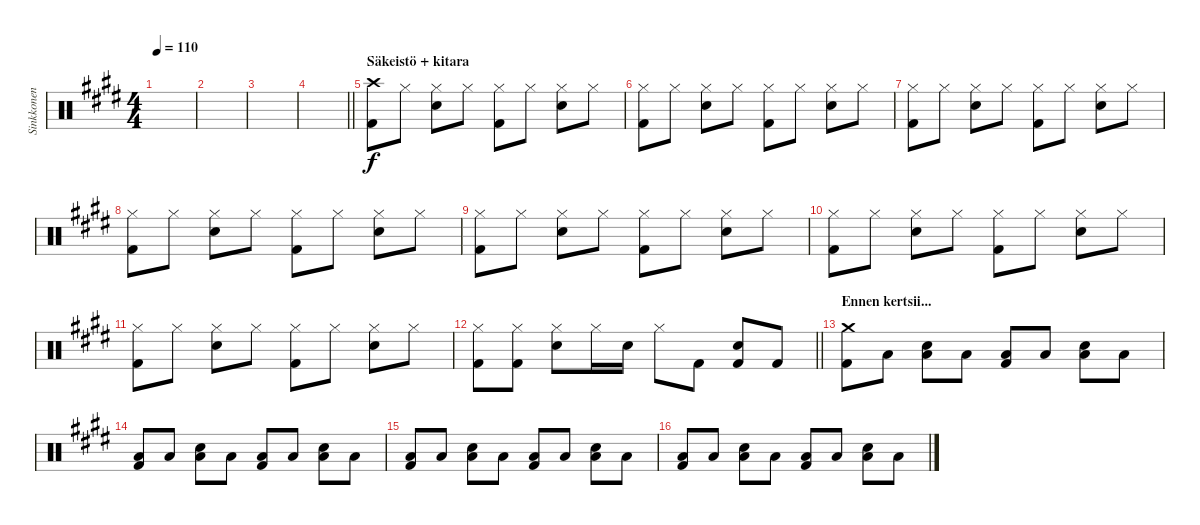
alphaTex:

\track ("Sinkkonen" "Sinkkonen") {instrument percussion}
\staff {score}
\articulation defaults
\ts (4 4)
\tempo 110
\clef neutral
\ks c#minor
|
|
|
\barLineRight lightlight
|
\section ("" "Säkeistö + kitara")
("Crash high (hit)" "Kick (hit) 2").8{volume 16} "Hi-Hat (closed)".8 ("Hi-Hat (closed)" "Snare (hit) 2").8 "Hi-Hat (closed)".8 ("Hi-Hat (closed)" "Kick (hit) 2").8 "Hi-Hat (closed)".8 ("Hi-Hat (closed)" "Snare (hit) 2").8 "Hi-Hat (closed)".8 |
("Hi-Hat (closed)" "Kick (hit) 2").8 "Hi-Hat (closed)".8 ("Hi-Hat (closed)" "Snare (hit) 2").8 "Hi-Hat (closed)".8 ("Hi-Hat (closed)" "Kick (hit) 2").8 "Hi-Hat (closed)".8 ("Hi-Hat (closed)" "Snare (hit) 2").8 "Hi-Hat (closed)".8 |
("Hi-Hat (closed)" "Kick (hit) 2").8 "Hi-Hat (closed)".8 ("Hi-Hat (closed)" "Snare (hit) 2").8 "Hi-Hat (closed)".8 ("Hi-Hat (closed)" "Kick (hit) 2").8 "Hi-Hat (closed)".8 ("Hi-Hat (closed)" "Snare (hit) 2").8 "Hi-Hat (closed)".8 |
("Hi-Hat (closed)" "Kick (hit) 2").8 "Hi-Hat (closed)".8 ("Hi-Hat (closed)" "Snare (hit) 2").8 "Hi-Hat (closed)".8 ("Hi-Hat (closed)" "Kick (hit) 2").8 "Hi-Hat (closed)".8 ("Hi-Hat (closed)" "Snare (hit) 2").8 "Hi-Hat (closed)".8 |
("Hi-Hat (closed)" "Kick (hit) 2").8 "Hi-Hat (closed)".8 ("Hi-Hat (closed)" "Snare (hit) 2").8 "Hi-Hat (closed)".8 ("Hi-Hat (closed)" "Kick (hit) 2").8 "Hi-Hat (closed)".8 ("Hi-Hat (closed)" "Snare (hit) 2").8 "Hi-Hat (closed)".8 |
("Hi-Hat (closed)" "Kick (hit) 2").8 "Hi-Hat (closed)".8 ("Hi-Hat (closed)" "Snare (hit) 2").8 "Hi-Hat (closed)".8 ("Hi-Hat (closed)" "Kick (hit) 2").8 "Hi-Hat (closed)".8 ("Hi-Hat (closed)" "Snare (hit) 2").8 "Hi-Hat (closed)".8 |
("Hi-Hat (closed)" "Kick (hit) 2").8 "Hi-Hat (closed)".8 ("Hi-Hat (closed)" "Snare (hit) 2").8 "Hi-Hat (closed)".8 ("Hi-Hat (closed)" "Kick (hit) 2").8 "Hi-Hat (closed)".8 ("Hi-Hat (closed)" "Snare (hit) 2").8 "Hi-Hat (closed)".8 |
\barLineRight lightlight
("Hi-Hat (closed)" "Kick (hit) 2").8 ("Hi-Hat (closed)" "Kick (hit) 2").8 ("Hi-Hat (closed)" "Snare (hit) 2").8 "Hi-Hat (closed)".16 "Snare (hit) 2".16 "Hi-Hat (closed)".8 "Kick (hit) 2".8 ("Snare (hit) 2" "Kick (hit) 2").8 "Kick (hit) 2".8 |
\section ("" "Ennen kertsii...")
("Crash medium (hit)" "Kick (hit) 2").8 "Low Floor Tom (hit)".8 ("Low Floor Tom (hit)" "Snare (hit) 2").8 "Low Floor Tom (hit)".8 ("Low Floor Tom (hit)" "Kick (hit) 2").8 "Low Floor Tom (hit)".8 ("Low Floor Tom (hit)" "Snare (hit) 2").8 "Low Floor Tom (hit)".8 |
("Low Floor Tom (hit)" "Kick (hit) 2").8 "Low Floor Tom (hit)".8 ("Low Floor Tom (hit)" "Snare (hit) 2").8 "Low Floor Tom (hit)".8 ("Low Floor Tom (hit)" "Kick (hit) 2").8 "Low Floor Tom (hit)".8 ("Low Floor Tom (hit)" "Snare (hit) 2").8 "Low Floor Tom (hit)".8 |
("Low Floor Tom (hit)" "Kick (hit) 2").8 "Low Floor Tom (hit)".8 ("Low Floor Tom (hit)" "Snare (hit) 2").8 "Low Floor Tom (hit)".8 ("Low Floor Tom (hit)" "Kick (hit) 2").8 "Low Floor Tom (hit)".8 ("Low Floor Tom (hit)" "Snare (hit) 2").8 "Low Floor Tom (hit)".8 |
("Low Floor Tom (hit)" "Kick (hit) 2").8 "Low Floor Tom (hit)".8 ("Low Floor Tom (hit)" "Snare (hit) 2").8 "Low Floor Tom (hit)".8 ("Low Floor Tom (hit)" "Kick (hit) 2").8 "Low Floor Tom (hit)".8 ("Low Floor Tom (hit)" "Snare (hit) 2").8 "Low Floor Tom (hit)".8
